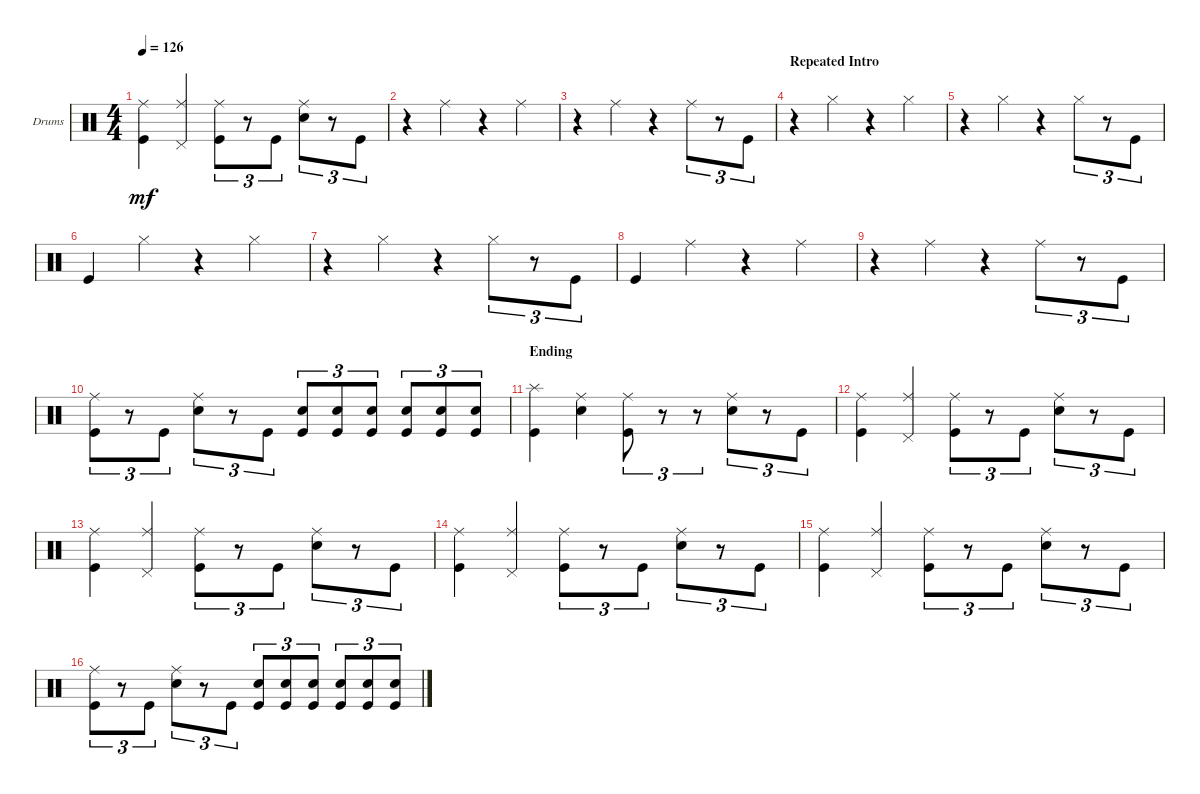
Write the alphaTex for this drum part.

\defaultSystemsLayout 4
\bracketExtendMode groupsimilarinstruments
\firstSystemTrackNameOrientation horizontal
\otherSystemsTrackNameOrientation horizontal
\track ("Drumkit" "Drums") {instrument percussion}
\staff {score}
\articulation defaults
\ts (4 4)
\tempo 126
\clef neutral
\ks c
("Ride (middle)" "Kick (hit)").4{dy mf} ("Ride (middle)" "Pedal Hi-Hat (hit)").4 ("Ride (middle)" "Kick (hit)").8{tu (3 2)} r.8{tu (3 2)} "Kick (hit)".8{tu (3 2)} ("Ride (middle)" "Snare (hit) 2").8{tu (3 2)} r.8{tu (3 2)} "Kick (hit)".8{tu (3 2)} |
r.4 "Ride (middle)".4 r.4 "Ride (middle)".4 |
r.4 "Ride (middle)".4 r.4 "Ride (middle)".8{tu (3 2)} r.8{tu (3 2)} "Kick (hit)".8{tu (3 2)} |
\section ("" "Repeated Intro")
r.4 "Hi-Hat (closed)".4 r.4 "Hi-Hat (closed)".4 |
r.4 "Hi-Hat (closed)".4 r.4 "Hi-Hat (closed)".8{tu (3 2)} r.8{tu (3 2)} "Kick (hit)".8{tu (3 2)} |
"Kick (hit)".4 "Hi-Hat (closed)".4 r.4 "Hi-Hat (closed)".4 |
r.4 "Hi-Hat (closed)".4 r.4 "Hi-Hat (closed)".8{tu (3 2)} r.8{tu (3 2)} "Kick (hit)".8{tu (3 2)} |
"Kick (hit)".4 "Ride (middle)".4 r.4 "Ride (middle)".4 |
r.4 "Ride (middle)".4 r.4 "Ride (middle)".8{tu (3 2)} r.8{tu (3 2)} "Kick (hit)".8{tu (3 2)} |
("Ride (middle)" "Kick (hit)").8{tu (3 2)} r.8{tu (3 2)} "Kick (hit)".8{tu (3 2)} ("Ride (middle)" "Snare (hit) 2").8{tu (3 2)} r.8{tu (3 2)} "Kick (hit)".8{tu (3 2)} ("Kick (hit)" "Snare (hit) 2").8{tu (3 2)} ("Kick (hit)" "Snare (hit) 2").8{tu (3 2)} ("Kick (hit)" "Snare (hit) 2").8{tu (3 2)} ("Kick (hit)" "Snare (hit) 2").8{tu (3 2)} ("Kick (hit)" "Snare (hit) 2").8{tu (3 2)} ("Kick (hit)" "Snare (hit) 2").8{tu (3 2)} |
\section ("" "Ending")
("Splash (hit)" "Kick (hit)").4 ("Ride (middle)" "Snare (hit) 2").4 ("Ride (middle)" "Kick (hit)").8{tu (3 2)} r.8{tu (3 2)} r.8{tu (3 2)} ("Ride (middle)" "Snare (hit) 2").8{tu (3 2)} r.8{tu (3 2)} "Kick (hit)".8{tu (3 2)} |
("Ride (middle)" "Kick (hit)").4 ("Ride (middle)" "Pedal Hi-Hat (hit)").4 ("Ride (middle)" "Kick (hit)").8{tu (3 2)} r.8{tu (3 2)} "Kick (hit)".8{tu (3 2)} ("Ride (middle)" "Snare (hit) 2").8{tu (3 2)} r.8{tu (3 2)} "Kick (hit)".8{tu (3 2)} |
("Ride (middle)" "Kick (hit)").4 ("Ride (middle)" "Pedal Hi-Hat (hit)").4 ("Ride (middle)" "Kick (hit)").8{tu (3 2)} r.8{tu (3 2)} "Kick (hit)".8{tu (3 2)} ("Ride (middle)" "Snare (hit) 2").8{tu (3 2)} r.8{tu (3 2)} "Kick (hit)".8{tu (3 2)} |
("Ride (middle)" "Kick (hit)").4 ("Ride (middle)" "Pedal Hi-Hat (hit)").4 ("Ride (middle)" "Kick (hit)").8{tu (3 2)} r.8{tu (3 2)} "Kick (hit)".8{tu (3 2)} ("Ride (middle)" "Snare (hit) 2").8{tu (3 2)} r.8{tu (3 2)} "Kick (hit)".8{tu (3 2)} |
("Ride (middle)" "Kick (hit)").4 ("Ride (middle)" "Pedal Hi-Hat (hit)").4 ("Ride (middle)" "Kick (hit)").8{tu (3 2)} r.8{tu (3 2)} "Kick (hit)".8{tu (3 2)} ("Ride (middle)" "Snare (hit) 2").8{tu (3 2)} r.8{tu (3 2)} "Kick (hit)".8{tu (3 2)} |
("Ride (middle)" "Kick (hit)").8{tu (3 2)} r.8{tu (3 2)} "Kick (hit)".8{tu (3 2)} ("Ride (middle)" "Snare (hit) 2").8{tu (3 2)} r.8{tu (3 2)} "Kick (hit)".8{tu (3 2)} ("Kick (hit)" "Snare (hit) 2").8{tu (3 2)} ("Kick (hit)" "Snare (hit) 2").8{tu (3 2)} ("Kick (hit)" "Snare (hit) 2").8{tu (3 2)} ("Kick (hit)" "Snare (hit) 2").8{tu (3 2)} ("Kick (hit)" "Snare (hit) 2").8{tu (3 2)} ("Kick (hit)" "Snare (hit) 2").8{tu (3 2)}
